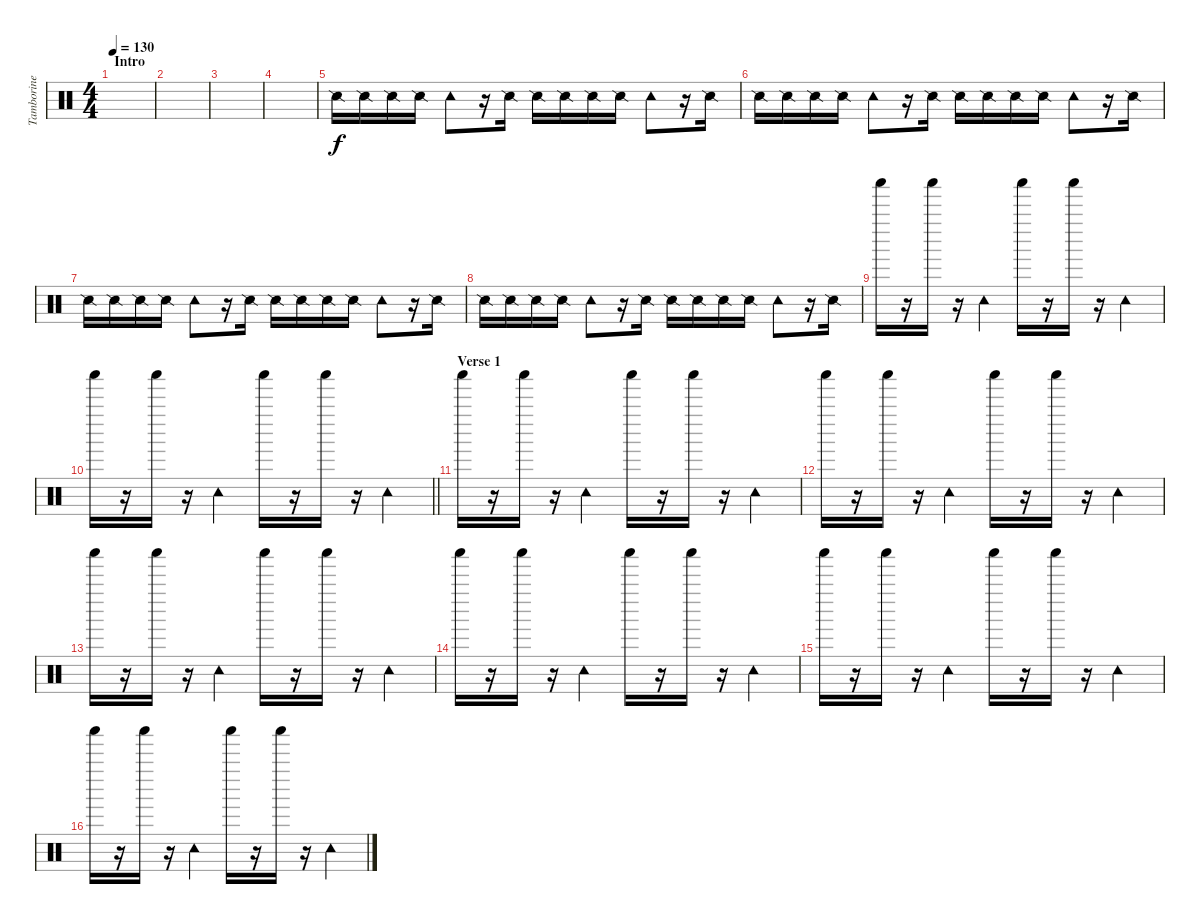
\track ("Tamborine" "Tamborine") {instrument percussion}
\staff {score}
\articulation defaults
\ts (4 4)
\section ("" "Intro")
\tempo 130
\clef neutral
\ks c
|
|
|
|
"Snare (side stick) 2".16 "Snare (side stick) 2".16 "Snare (side stick) 2".16 "Snare (side stick) 2".16 "Tambourine (hit)".8 r.16 "Snare (side stick) 2".16 "Snare (side stick) 2".16 "Snare (side stick) 2".16 "Snare (side stick) 2".16 "Snare (side stick) 2".16 "Tambourine (hit)".8 r.16 "Snare (side stick) 2".16 |
"Snare (side stick) 2".16 "Snare (side stick) 2".16 "Snare (side stick) 2".16 "Snare (side stick) 2".16 "Tambourine (hit)".8 r.16 "Snare (side stick) 2".16 "Snare (side stick) 2".16 "Snare (side stick) 2".16 "Snare (side stick) 2".16 "Snare (side stick) 2".16 "Tambourine (hit)".8 r.16 "Snare (side stick) 2".16 |
"Snare (side stick) 2".16 "Snare (side stick) 2".16 "Snare (side stick) 2".16 "Snare (side stick) 2".16 "Tambourine (hit)".8 r.16 "Snare (side stick) 2".16 "Snare (side stick) 2".16 "Snare (side stick) 2".16 "Snare (side stick) 2".16 "Snare (side stick) 2".16 "Tambourine (hit)".8 r.16 "Snare (side stick) 2".16 |
"Snare (side stick) 2".16 "Snare (side stick) 2".16 "Snare (side stick) 2".16 "Snare (side stick) 2".16 "Tambourine (hit)".8 r.16 "Snare (side stick) 2".16 "Snare (side stick) 2".16 "Snare (side stick) 2".16 "Snare (side stick) 2".16 "Snare (side stick) 2".16 "Tambourine (hit)".8 r.16 "Snare (side stick) 2".16 |
"Shaker (hit)".16 r.16 "Shaker (hit)".16 r.16 "Tambourine (hit)".4 "Shaker (hit)".16 r.16 "Shaker (hit)".16 r.16 "Tambourine (hit)".4 |
\barLineRight lightlight "Shaker (hit)".16
r.16 "Shaker (hit)".16 r.16 "Tambourine (hit)".4 "Shaker (hit)".16 r.16 "Shaker (hit)".16 r.16 "Tambourine (hit)".4 |
\section ("" "Verse 1")
"Shaker (hit)".16 r.16 "Shaker (hit)".16 r.16 "Tambourine (hit)".4 "Shaker (hit)".16 r.16 "Shaker (hit)".16 r.16 "Tambourine (hit)".4 |
"Shaker (hit)".16 r.16 "Shaker (hit)".16 r.16 "Tambourine (hit)".4 "Shaker (hit)".16 r.16 "Shaker (hit)".16 r.16 "Tambourine (hit)".4 |
"Shaker (hit)".16 r.16 "Shaker (hit)".16 r.16 "Tambourine (hit)".4 "Shaker (hit)".16 r.16 "Shaker (hit)".16 r.16 "Tambourine (hit)".4 |
"Shaker (hit)".16 r.16 "Shaker (hit)".16 r.16 "Tambourine (hit)".4 "Shaker (hit)".16 r.16 "Shaker (hit)".16 r.16 "Tambourine (hit)".4 |
"Shaker (hit)".16 r.16 "Shaker (hit)".16 r.16 "Tambourine (hit)".4 "Shaker (hit)".16 r.16 "Shaker (hit)".16 r.16 "Tambourine (hit)".4 |
"Shaker (hit)".16 r.16 "Shaker (hit)".16 r.16 "Tambourine (hit)".4 "Shaker (hit)".16 r.16 "Shaker (hit)".16 r.16 "Tambourine (hit)".4
